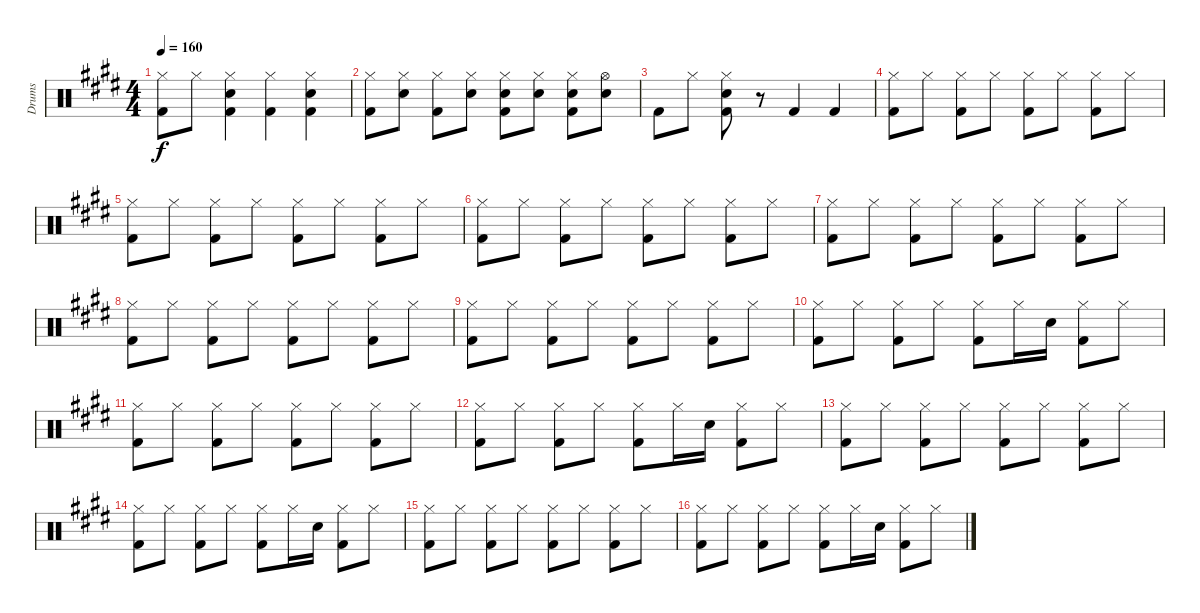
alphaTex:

\track ("Drums" "Drums") {instrument percussion}
\staff {score}
\articulation defaults
\ts (4 4)
\tempo 160
\clef neutral
\ks e
("Hi-Hat (closed)" "Kick (hit) 2").8{dy f} "Hi-Hat (closed)".8 ("Hi-Hat (closed)" "Electric Snare (hit)" "Kick (hit) 2").4 ("Hi-Hat (closed)" "Kick (hit) 2").4 ("Hi-Hat (closed)" "Electric Snare (hit)" "Kick (hit) 2").4 |
("Hi-Hat (closed)" "Kick (hit) 2").8 ("Hi-Hat (closed)" "Electric Snare (hit)").8 ("Hi-Hat (closed)" "Kick (hit) 2").8 ("Hi-Hat (closed)" "Electric Snare (hit)").8 ("Hi-Hat (closed)" "Electric Snare (hit)" "Kick (hit) 2").8 ("Hi-Hat (closed)" "Electric Snare (hit)").8 ("Hi-Hat (closed)" "Electric Snare (hit)" "Kick (hit) 2").8 ("Hi-Hat (open)" "Electric Snare (hit)").8 |
"Kick (hit) 2".8 "Hi-Hat (closed)".8 ("Hi-Hat (closed)" "Electric Snare (hit)" "Kick (hit) 2").8 r.8 "Kick (hit) 2".4 "Kick (hit) 2".4 |
("Hi-Hat (closed)" "Kick (hit) 2").8 "Hi-Hat (closed)".8 ("Hi-Hat (closed)" "Kick (hit) 2").8 "Hi-Hat (closed)".8 ("Hi-Hat (closed)" "Kick (hit) 2").8 "Hi-Hat (closed)".8 ("Hi-Hat (closed)" "Kick (hit) 2").8 "Hi-Hat (closed)".8 |
("Hi-Hat (closed)" "Kick (hit) 2").8 "Hi-Hat (closed)".8 ("Hi-Hat (closed)" "Kick (hit) 2").8 "Hi-Hat (closed)".8 ("Hi-Hat (closed)" "Kick (hit) 2").8 "Hi-Hat (closed)".8 ("Hi-Hat (closed)" "Kick (hit) 2").8 "Hi-Hat (closed)".8 |
("Hi-Hat (closed)" "Kick (hit) 2").8 "Hi-Hat (closed)".8 ("Hi-Hat (closed)" "Kick (hit) 2").8 "Hi-Hat (closed)".8 ("Hi-Hat (closed)" "Kick (hit) 2").8 "Hi-Hat (closed)".8 ("Hi-Hat (closed)" "Kick (hit) 2").8 "Hi-Hat (closed)".8 |
("Hi-Hat (closed)" "Kick (hit) 2").8 "Hi-Hat (closed)".8 ("Hi-Hat (closed)" "Kick (hit) 2").8 "Hi-Hat (closed)".8 ("Hi-Hat (closed)" "Kick (hit) 2").8 "Hi-Hat (closed)".8 ("Hi-Hat (closed)" "Kick (hit) 2").8 "Hi-Hat (closed)".8 |
("Hi-Hat (closed)" "Kick (hit) 2").8 "Hi-Hat (closed)".8 ("Hi-Hat (closed)" "Kick (hit) 2").8 "Hi-Hat (closed)".8 ("Hi-Hat (closed)" "Kick (hit) 2").8 "Hi-Hat (closed)".8 ("Hi-Hat (closed)" "Kick (hit) 2").8 "Hi-Hat (closed)".8 |
("Hi-Hat (closed)" "Kick (hit) 2").8 "Hi-Hat (closed)".8 ("Hi-Hat (closed)" "Kick (hit) 2").8 "Hi-Hat (closed)".8 ("Hi-Hat (closed)" "Kick (hit) 2").8 "Hi-Hat (closed)".8 ("Hi-Hat (closed)" "Kick (hit) 2").8 "Hi-Hat (closed)".8 |
("Hi-Hat (closed)" "Kick (hit) 2").8 "Hi-Hat (closed)".8 ("Hi-Hat (closed)" "Kick (hit) 2").8 "Hi-Hat (closed)".8 ("Hi-Hat (closed)" "Kick (hit) 2").8 "Hi-Hat (closed)".16 "Electric Snare (hit)".16 ("Hi-Hat (closed)" "Kick (hit) 2").8 "Hi-Hat (closed)".8 |
("Hi-Hat (closed)" "Kick (hit) 2").8 "Hi-Hat (closed)".8 ("Hi-Hat (closed)" "Kick (hit) 2").8 "Hi-Hat (closed)".8 ("Hi-Hat (closed)" "Kick (hit) 2").8 "Hi-Hat (closed)".8 ("Hi-Hat (closed)" "Kick (hit) 2").8 "Hi-Hat (closed)".8 |
("Hi-Hat (closed)" "Kick (hit) 2").8 "Hi-Hat (closed)".8 ("Hi-Hat (closed)" "Kick (hit) 2").8 "Hi-Hat (closed)".8 ("Hi-Hat (closed)" "Kick (hit) 2").8 "Hi-Hat (closed)".16 "Electric Snare (hit)".16 ("Hi-Hat (closed)" "Kick (hit) 2").8 "Hi-Hat (closed)".8 |
("Hi-Hat (closed)" "Kick (hit) 2").8 "Hi-Hat (closed)".8 ("Hi-Hat (closed)" "Kick (hit) 2").8 "Hi-Hat (closed)".8 ("Hi-Hat (closed)" "Kick (hit) 2").8 "Hi-Hat (closed)".8 ("Hi-Hat (closed)" "Kick (hit) 2").8 "Hi-Hat (closed)".8 |
("Hi-Hat (closed)" "Kick (hit) 2").8 "Hi-Hat (closed)".8 ("Hi-Hat (closed)" "Kick (hit) 2").8 "Hi-Hat (closed)".8 ("Hi-Hat (closed)" "Kick (hit) 2").8 "Hi-Hat (closed)".16 "Electric Snare (hit)".16 ("Hi-Hat (closed)" "Kick (hit) 2").8 "Hi-Hat (closed)".8 |
("Hi-Hat (closed)" "Kick (hit) 2").8 "Hi-Hat (closed)".8 ("Hi-Hat (closed)" "Kick (hit) 2").8 "Hi-Hat (closed)".8 ("Hi-Hat (closed)" "Kick (hit) 2").8 "Hi-Hat (closed)".8 ("Hi-Hat (closed)" "Kick (hit) 2").8 "Hi-Hat (closed)".8 |
("Hi-Hat (closed)" "Kick (hit) 2").8 "Hi-Hat (closed)".8 ("Hi-Hat (closed)" "Kick (hit) 2").8 "Hi-Hat (closed)".8 ("Hi-Hat (closed)" "Kick (hit) 2").8 "Hi-Hat (closed)".16 "Electric Snare (hit)".16 ("Hi-Hat (closed)" "Kick (hit) 2").8 "Hi-Hat (closed)".8
